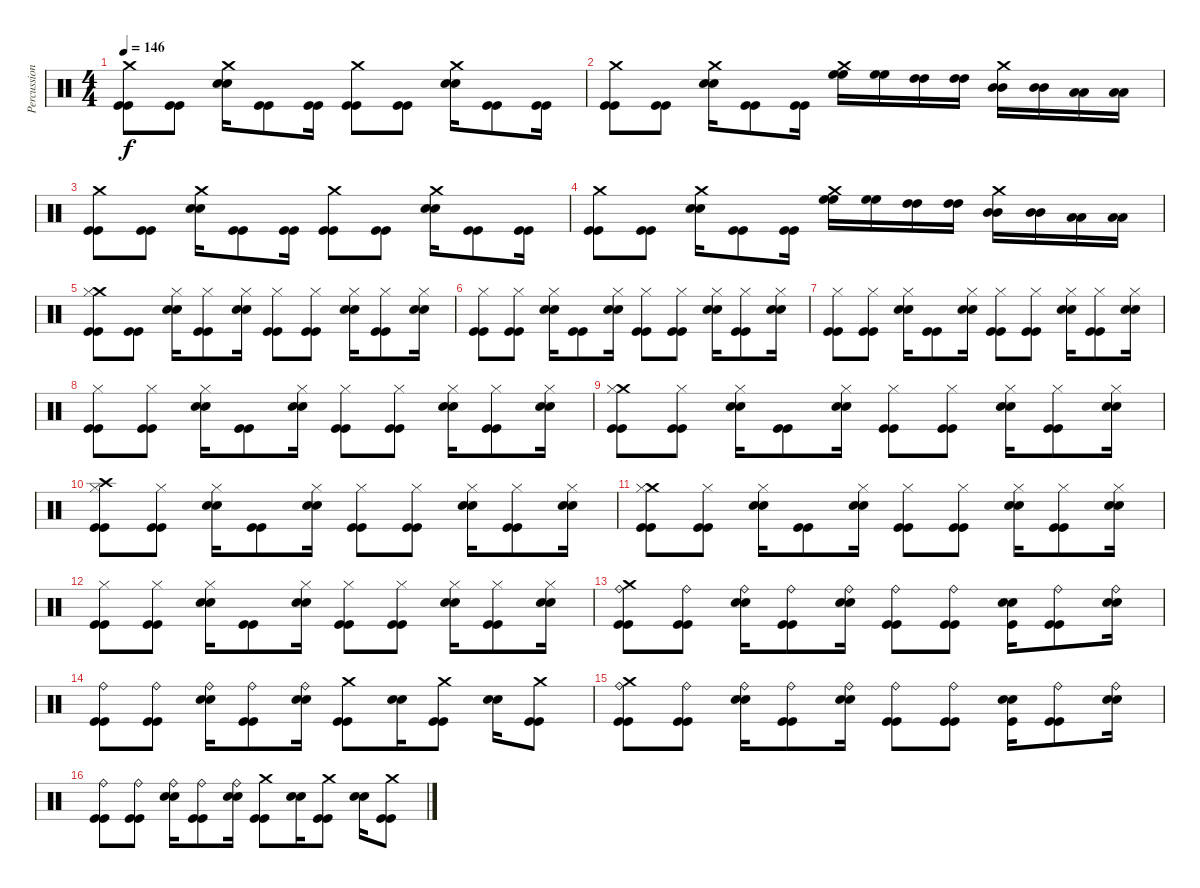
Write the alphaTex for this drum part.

\track ("Percussion" "Percussion") {instrument percussion}
\staff {score}
\articulation defaults
\ts (4 4)
\tempo 146
\clef neutral
\ks c
("Crash medium (hit)" "Kick (hit)" "Kick (hit)").8{dy f} ("Kick (hit)" "Kick (hit)").8 ("Crash medium (hit)" "Snare (hit) 2" "Snare (hit) 2").16 ("Kick (hit)" "Kick (hit)").8 ("Kick (hit)" "Kick (hit)").16 ("Crash medium (hit)" "Kick (hit)" "Kick (hit)").8 ("Kick (hit)" "Kick (hit)").8 ("Crash medium (hit)" "Snare (hit) 2" "Snare (hit) 2").16 ("Kick (hit)" "Kick (hit)").8 ("Kick (hit)" "Kick (hit)").16 |
("Crash medium (hit)" "Kick (hit)" "Kick (hit)").8 ("Kick (hit)" "Kick (hit)").8 ("Crash medium (hit)" "Snare (hit) 2" "Snare (hit) 2").16 ("Kick (hit)" "Kick (hit)").8 ("Kick (hit)" "Kick (hit)").16 ("Crash medium (hit)" "High Floor Tom (hit)" "High Floor Tom (hit)").16 ("High Floor Tom (hit)" "High Floor Tom (hit)").16 ("High Tom (hit)" "High Tom (hit)").16 ("High Tom (hit)" "High Tom (hit)").16 ("Crash medium (hit)" "Mid Tom (hit)" "Mid Tom (hit)").16 ("Mid Tom (hit)" "Mid Tom (hit)").16 ("Low Tom (hit)" "Low Tom (hit)").16 ("Low Tom (hit)" "Low Tom (hit)").16 |
("Crash medium (hit)" "Kick (hit)" "Kick (hit)").8 ("Kick (hit)" "Kick (hit)").8 ("Crash medium (hit)" "Snare (hit) 2" "Snare (hit) 2").16 ("Kick (hit)" "Kick (hit)").8 ("Kick (hit)" "Kick (hit)").16 ("Crash medium (hit)" "Kick (hit)" "Kick (hit)").8 ("Kick (hit)" "Kick (hit)").8 ("Crash medium (hit)" "Snare (hit) 2" "Snare (hit) 2").16 ("Kick (hit)" "Kick (hit)").8 ("Kick (hit)" "Kick (hit)").16 |
("Crash medium (hit)" "Kick (hit)" "Kick (hit)").8 ("Kick (hit)" "Kick (hit)").8 ("Crash medium (hit)" "Snare (hit) 2" "Snare (hit) 2").16 ("Kick (hit)" "Kick (hit)").8 ("Kick (hit)" "Kick (hit)").16 ("Crash medium (hit)" "High Floor Tom (hit)" "High Floor Tom (hit)").16 ("High Floor Tom (hit)" "High Floor Tom (hit)").16 ("High Tom (hit)" "High Tom (hit)").16 ("High Tom (hit)" "High Tom (hit)").16 ("Crash medium (hit)" "Mid Tom (hit)" "Mid Tom (hit)").16 ("Mid Tom (hit)" "Mid Tom (hit)").16 ("Low Tom (hit)" "Low Tom (hit)").16 ("Low Tom (hit)" "Low Tom (hit)").16 |
("Crash medium (hit)" "Hi-Hat (closed)" "Kick (hit)" "Kick (hit)").8 ("Kick (hit)" "Kick (hit)").8 ("Snare (hit) 2" "Snare (hit) 2" "Hi-Hat (closed)").16 ("Hi-Hat (closed)" "Kick (hit)" "Kick (hit)").8 ("Snare (hit) 2" "Snare (hit) 2" "Hi-Hat (closed)").16 ("Hi-Hat (closed)" "Kick (hit)" "Kick (hit)").8 ("Hi-Hat (closed)" "Kick (hit)" "Kick (hit)").8 ("Snare (hit) 2" "Snare (hit) 2" "Hi-Hat (closed)").16 ("Hi-Hat (closed)" "Kick (hit)" "Kick (hit)").8 ("Snare (hit) 2" "Snare (hit) 2" "Hi-Hat (closed)").16 |
("Hi-Hat (closed)" "Kick (hit)" "Kick (hit)").8 ("Hi-Hat (closed)" "Kick (hit)" "Kick (hit)").8 ("Snare (hit) 2" "Snare (hit) 2" "Hi-Hat (closed)").16 ("Kick (hit)" "Kick (hit)").8 ("Snare (hit) 2" "Snare (hit) 2" "Hi-Hat (closed)").16 ("Hi-Hat (closed)" "Kick (hit)" "Kick (hit)").8 ("Hi-Hat (closed)" "Kick (hit)" "Kick (hit)").8 ("Snare (hit) 2" "Snare (hit) 2" "Hi-Hat (closed)").16 ("Hi-Hat (closed)" "Kick (hit)" "Kick (hit)").8 ("Snare (hit) 2" "Snare (hit) 2" "Hi-Hat (closed)").16 |
("Hi-Hat (closed)" "Kick (hit)" "Kick (hit)").8 ("Hi-Hat (closed)" "Kick (hit)" "Kick (hit)").8 ("Snare (hit) 2" "Snare (hit) 2" "Hi-Hat (closed)").16 ("Kick (hit)" "Kick (hit)").8 ("Snare (hit) 2" "Snare (hit) 2" "Hi-Hat (closed)").16 ("Hi-Hat (closed)" "Kick (hit)" "Kick (hit)").8 ("Hi-Hat (closed)" "Kick (hit)" "Kick (hit)").8 ("Snare (hit) 2" "Snare (hit) 2" "Hi-Hat (closed)").16 ("Hi-Hat (closed)" "Kick (hit)" "Kick (hit)").8 ("Snare (hit) 2" "Snare (hit) 2" "Hi-Hat (closed)").16 |
("Hi-Hat (closed)" "Kick (hit)" "Kick (hit)").8 ("Hi-Hat (closed)" "Kick (hit)" "Kick (hit)").8 ("Snare (hit) 2" "Snare (hit) 2" "Hi-Hat (closed)").16 ("Kick (hit)" "Kick (hit)").8 ("Snare (hit) 2" "Snare (hit) 2" "Hi-Hat (closed)").16 ("Hi-Hat (closed)" "Kick (hit)" "Kick (hit)").8 ("Hi-Hat (closed)" "Kick (hit)" "Kick (hit)").8 ("Snare (hit) 2" "Snare (hit) 2" "Hi-Hat (closed)").16 ("Hi-Hat (closed)" "Kick (hit)" "Kick (hit)").8 ("Snare (hit) 2" "Snare (hit) 2" "Hi-Hat (closed)").16 |
("Crash medium (hit)" "Hi-Hat (closed)" "Kick (hit)" "Kick (hit)").8 ("Hi-Hat (closed)" "Kick (hit)" "Kick (hit)").8 ("Snare (hit) 2" "Snare (hit) 2" "Hi-Hat (closed)").16 ("Kick (hit)" "Kick (hit)").8 ("Snare (hit) 2" "Snare (hit) 2" "Hi-Hat (closed)").16 ("Hi-Hat (closed)" "Kick (hit)" "Kick (hit)").8 ("Hi-Hat (closed)" "Kick (hit)" "Kick (hit)").8 ("Snare (hit) 2" "Snare (hit) 2" "Hi-Hat (closed)").16 ("Hi-Hat (closed)" "Kick (hit)" "Kick (hit)").8 ("Snare (hit) 2" "Snare (hit) 2" "Hi-Hat (closed)").16 |
("Crash high (hit)" "Hi-Hat (closed)" "Kick (hit)" "Kick (hit)").8 ("Hi-Hat (closed)" "Kick (hit)" "Kick (hit)").8 ("Snare (hit) 2" "Snare (hit) 2" "Hi-Hat (closed)").16 ("Kick (hit)" "Kick (hit)").8 ("Snare (hit) 2" "Snare (hit) 2" "Hi-Hat (closed)").16 ("Hi-Hat (closed)" "Kick (hit)" "Kick (hit)").8 ("Hi-Hat (closed)" "Kick (hit)" "Kick (hit)").8 ("Snare (hit) 2" "Snare (hit) 2" "Hi-Hat (closed)").16 ("Hi-Hat (closed)" "Kick (hit)" "Kick (hit)").8 ("Snare (hit) 2" "Snare (hit) 2" "Hi-Hat (closed)").16 |
("Crash medium (hit)" "Hi-Hat (closed)" "Kick (hit)" "Kick (hit)").8 ("Hi-Hat (closed)" "Kick (hit)" "Kick (hit)").8 ("Snare (hit) 2" "Snare (hit) 2" "Hi-Hat (closed)").16 ("Kick (hit)" "Kick (hit)").8 ("Snare (hit) 2" "Snare (hit) 2" "Hi-Hat (closed)").16 ("Hi-Hat (closed)" "Kick (hit)" "Kick (hit)").8 ("Hi-Hat (closed)" "Kick (hit)" "Kick (hit)").8 ("Snare (hit) 2" "Snare (hit) 2" "Hi-Hat (closed)").16 ("Hi-Hat (closed)" "Kick (hit)" "Kick (hit)").8 ("Snare (hit) 2" "Snare (hit) 2" "Hi-Hat (closed)").16 |
("Hi-Hat (closed)" "Kick (hit)" "Kick (hit)").8 ("Hi-Hat (closed)" "Kick (hit)" "Kick (hit)").8 ("Snare (hit) 2" "Snare (hit) 2" "Hi-Hat (closed)").16 ("Kick (hit)" "Kick (hit)").8 ("Snare (hit) 2" "Snare (hit) 2" "Hi-Hat (closed)").16 ("Hi-Hat (closed)" "Kick (hit)" "Kick (hit)").8 ("Hi-Hat (closed)" "Kick (hit)" "Kick (hit)").8 ("Snare (hit) 2" "Snare (hit) 2" "Hi-Hat (closed)").16 ("Hi-Hat (closed)" "Kick (hit)" "Kick (hit)").8 ("Snare (hit) 2" "Snare (hit) 2" "Hi-Hat (closed)").16 |
("Crash medium (hit)" "Ride (bell)" "Kick (hit)" "Kick (hit)").8 ("Ride (bell)" "Kick (hit)" "Kick (hit)").8 ("Snare (hit) 2" "Snare (hit) 2" "Ride (bell)").16 ("Ride (bell)" "Kick (hit)" "Kick (hit)").8 ("Snare (hit) 2" "Snare (hit) 2" "Ride (bell)").16 ("Ride (bell)" "Kick (hit)" "Kick (hit)").8 ("Ride (bell)" "Kick (hit)" "Kick (hit)").8 ("Snare (hit) 2" "Snare (hit) 2" "Kick (hit)").16 ("Ride (bell)" "Kick (hit)" "Kick (hit)").8 ("Snare (hit) 2" "Snare (hit) 2" "Ride (bell)").16 |
("Ride (bell)" "Kick (hit)" "Kick (hit)").8 ("Ride (bell)" "Kick (hit)" "Kick (hit)").8 ("Snare (hit) 2" "Snare (hit) 2" "Ride (bell)").16 ("Ride (bell)" "Kick (hit)" "Kick (hit)").8 ("Snare (hit) 2" "Snare (hit) 2" "Ride (bell)").16 ("Crash medium (hit)" "Kick (hit)" "Kick (hit)").8 ("Snare (hit) 2" "Snare (hit) 2").16 ("Crash medium (hit)" "Kick (hit)" "Kick (hit)").8 ("Snare (hit) 2" "Snare (hit) 2").16 ("Crash medium (hit)" "Kick (hit)" "Kick (hit)").8 |
("Crash medium (hit)" "Ride (bell)" "Kick (hit)" "Kick (hit)").8 ("Ride (bell)" "Kick (hit)" "Kick (hit)").8 ("Snare (hit) 2" "Snare (hit) 2" "Ride (bell)").16 ("Ride (bell)" "Kick (hit)" "Kick (hit)").8 ("Snare (hit) 2" "Snare (hit) 2" "Ride (bell)").16 ("Ride (bell)" "Kick (hit)" "Kick (hit)").8 ("Ride (bell)" "Kick (hit)" "Kick (hit)").8 ("Snare (hit) 2" "Snare (hit) 2" "Kick (hit)").16 ("Ride (bell)" "Kick (hit)" "Kick (hit)").8 ("Snare (hit) 2" "Snare (hit) 2" "Ride (bell)").16 |
("Ride (bell)" "Kick (hit)" "Kick (hit)").8 ("Ride (bell)" "Kick (hit)" "Kick (hit)").8 ("Snare (hit) 2" "Snare (hit) 2" "Ride (bell)").16 ("Ride (bell)" "Kick (hit)" "Kick (hit)").8 ("Snare (hit) 2" "Snare (hit) 2" "Ride (bell)").16 ("Crash medium (hit)" "Kick (hit)" "Kick (hit)").8 ("Snare (hit) 2" "Snare (hit) 2").16 ("Crash medium (hit)" "Kick (hit)" "Kick (hit)").8 ("Snare (hit) 2" "Snare (hit) 2").16 ("Crash medium (hit)" "Kick (hit)" "Kick (hit)").8
